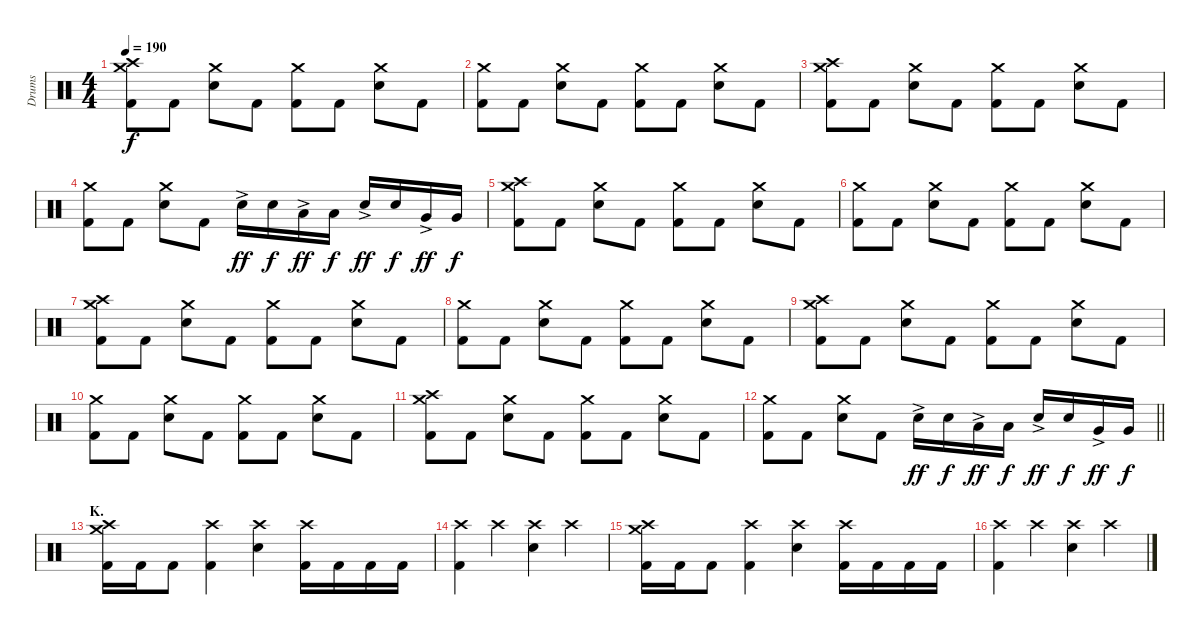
\track ("Drums" "Drums") {instrument percussion}
\staff {score}
\articulation defaults
\ts (4 4)
\tempo 190
\clef neutral
\ks c
("Crash medium (hit)" "Crash high (hit)" "Kick (hit) 2").8{dy f} "Kick (hit) 2".8 ("Crash medium (hit)" "Electric Snare (hit)").8 "Kick (hit) 2".8 ("Crash medium (hit)" "Kick (hit) 2").8 "Kick (hit) 2".8 ("Crash medium (hit)" "Electric Snare (hit)").8 "Kick (hit) 2".8 |
("Crash medium (hit)" "Kick (hit) 2").8 "Kick (hit) 2".8 ("Crash medium (hit)" "Electric Snare (hit)").8 "Kick (hit) 2".8 ("Crash medium (hit)" "Kick (hit) 2").8 "Kick (hit) 2".8 ("Crash medium (hit)" "Electric Snare (hit)").8 "Kick (hit) 2".8 |
("Crash medium (hit)" "Crash high (hit)" "Kick (hit) 2").8 "Kick (hit) 2".8 ("Crash medium (hit)" "Electric Snare (hit)").8 "Kick (hit) 2".8 ("Crash medium (hit)" "Kick (hit) 2").8 "Kick (hit) 2".8 ("Crash medium (hit)" "Electric Snare (hit)").8 "Kick (hit) 2".8 |
("Crash medium (hit)" "Kick (hit) 2").8 "Kick (hit) 2".8 ("Crash medium (hit)" "Electric Snare (hit)").8 "Kick (hit) 2".8 "Electric Snare (hit)"{ac}.16{dy ff} "Electric Snare (hit)".16{dy f} "Low Tom (hit)"{ac}.16{dy ff} "Low Tom (hit)".16{dy f} "Electric Snare (hit)"{ac}.16{dy ff} "Electric Snare (hit)".16{dy f} "Very Low Tom (hit)"{ac}.16{dy ff} "Very Low Tom (hit)".16{dy f} |
("Crash medium (hit)" "Crash high (hit)" "Kick (hit) 2").8 "Kick (hit) 2".8 ("Crash medium (hit)" "Electric Snare (hit)").8 "Kick (hit) 2".8 ("Crash medium (hit)" "Kick (hit) 2").8 "Kick (hit) 2".8 ("Crash medium (hit)" "Electric Snare (hit)").8 "Kick (hit) 2".8 |
("Crash medium (hit)" "Kick (hit) 2").8 "Kick (hit) 2".8 ("Crash medium (hit)" "Electric Snare (hit)").8 "Kick (hit) 2".8 ("Crash medium (hit)" "Kick (hit) 2").8 "Kick (hit) 2".8 ("Crash medium (hit)" "Electric Snare (hit)").8 "Kick (hit) 2".8 |
("Crash medium (hit)" "Crash high (hit)" "Kick (hit) 2").8 "Kick (hit) 2".8 ("Crash medium (hit)" "Electric Snare (hit)").8 "Kick (hit) 2".8 ("Crash medium (hit)" "Kick (hit) 2").8 "Kick (hit) 2".8 ("Crash medium (hit)" "Electric Snare (hit)").8 "Kick (hit) 2".8 |
("Crash medium (hit)" "Kick (hit) 2").8 "Kick (hit) 2".8 ("Crash medium (hit)" "Electric Snare (hit)").8 "Kick (hit) 2".8 ("Crash medium (hit)" "Kick (hit) 2").8 "Kick (hit) 2".8 ("Crash medium (hit)" "Electric Snare (hit)").8 "Kick (hit) 2".8 |
("Crash medium (hit)" "Crash high (hit)" "Kick (hit) 2").8 "Kick (hit) 2".8 ("Crash medium (hit)" "Electric Snare (hit)").8 "Kick (hit) 2".8 ("Crash medium (hit)" "Kick (hit) 2").8 "Kick (hit) 2".8 ("Crash medium (hit)" "Electric Snare (hit)").8 "Kick (hit) 2".8 |
("Crash medium (hit)" "Kick (hit) 2").8 "Kick (hit) 2".8 ("Crash medium (hit)" "Electric Snare (hit)").8 "Kick (hit) 2".8 ("Crash medium (hit)" "Kick (hit) 2").8 "Kick (hit) 2".8 ("Crash medium (hit)" "Electric Snare (hit)").8 "Kick (hit) 2".8 |
("Crash medium (hit)" "Crash high (hit)" "Kick (hit) 2").8 "Kick (hit) 2".8 ("Crash medium (hit)" "Electric Snare (hit)").8 "Kick (hit) 2".8 ("Crash medium (hit)" "Kick (hit) 2").8 "Kick (hit) 2".8 ("Crash medium (hit)" "Electric Snare (hit)").8 "Kick (hit) 2".8 |
\barLineRight lightlight
("Crash medium (hit)" "Kick (hit) 2").8 "Kick (hit) 2".8 ("Crash medium (hit)" "Electric Snare (hit)").8 "Kick (hit) 2".8 "Electric Snare (hit)"{ac}.16{dy ff} "Electric Snare (hit)".16{dy f} "Low Tom (hit)"{ac}.16{dy ff} "Low Tom (hit)".16{dy f} "Electric Snare (hit)"{ac}.16{dy ff} "Electric Snare (hit)".16{dy f} "Very Low Tom (hit)"{ac}.16{dy ff} "Very Low Tom (hit)".16{dy f} |
\section ("" "K.")
("Crash medium (hit)" "Crash high (hit)" "Kick (hit) 2").16 "Kick (hit) 2".16 "Kick (hit) 2".8 ("Crash high (hit)" "Kick (hit) 2").4 ("Crash high (hit)" "Electric Snare (hit)").4 ("Crash high (hit)" "Kick (hit) 2").16 "Kick (hit) 2".16 "Kick (hit) 2".16 "Kick (hit) 2".16 |
("Crash high (hit)" "Kick (hit) 2").4 "Crash high (hit)".4 ("Crash high (hit)" "Electric Snare (hit)").4 "Crash high (hit)".4 |
("Crash medium (hit)" "Crash high (hit)" "Kick (hit) 2").16 "Kick (hit) 2".16 "Kick (hit) 2".8 ("Crash high (hit)" "Kick (hit) 2").4 ("Crash high (hit)" "Electric Snare (hit)").4 ("Crash high (hit)" "Kick (hit) 2").16 "Kick (hit) 2".16 "Kick (hit) 2".16 "Kick (hit) 2".16 |
("Crash high (hit)" "Kick (hit) 2").4 "Crash high (hit)".4 ("Crash high (hit)" "Electric Snare (hit)").4 "Crash high (hit)".4
